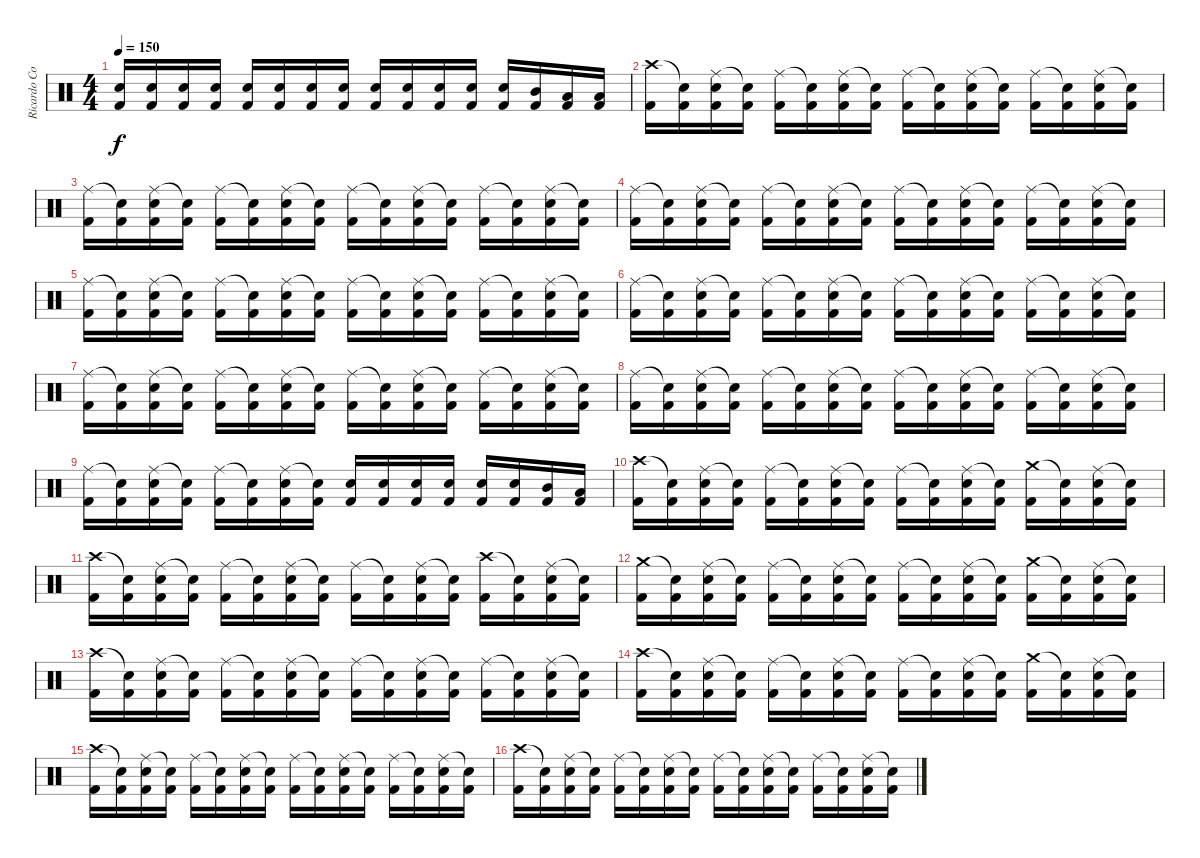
\track ("Ricardo Confessori" "Ricardo Co") {instrument percussion}
\staff {score}
\articulation defaults
\ts (4 4)
\tempo 150
\clef neutral
\ks c
("Electric Snare (hit)" "Kick (hit) 2").16{dy f} ("Electric Snare (hit)" "Kick (hit) 2").16 ("Electric Snare (hit)" "Kick (hit) 2").16 ("Electric Snare (hit)" "Kick (hit) 2").16 ("Electric Snare (hit)" "Kick (hit) 2").16 ("Electric Snare (hit)" "Kick (hit) 2").16 ("Electric Snare (hit)" "Kick (hit) 2").16 ("Electric Snare (hit)" "Kick (hit) 2").16 ("Electric Snare (hit)" "Kick (hit) 2").16 ("Electric Snare (hit)" "Kick (hit) 2").16 ("Electric Snare (hit)" "Kick (hit) 2").16 ("Electric Snare (hit)" "Kick (hit) 2").16 ("Electric Snare (hit)" "Kick (hit) 2").16 ("Mid Tom (hit)" "Kick (hit) 2").16 ("Low Tom (hit)" "Kick (hit) 2").16 ("Low Tom (hit)" "Kick (hit) 2").16 |
("Crash high (hit)" "Kick (hit) 2").16 ("Snare (hit)"{t} "Kick (hit) 2").16 ("Ride (middle)" "Electric Snare (hit)" "Kick (hit) 2").16 ("Snare (hit)"{t} "Kick (hit) 2").16 ("Ride (middle)" "Kick (hit) 2").16 ("Snare (hit)"{t} "Kick (hit) 2").16 ("Ride (middle)" "Electric Snare (hit)" "Kick (hit) 2").16 ("Snare (hit)"{t} "Kick (hit) 2").16 ("Ride (middle)" "Kick (hit) 2").16 ("Snare (hit)"{t} "Kick (hit) 2").16 ("Ride (middle)" "Electric Snare (hit)" "Kick (hit) 2").16 ("Snare (hit)"{t} "Kick (hit) 2").16 ("Ride (middle)" "Kick (hit) 2").16 ("Snare (hit)"{t} "Kick (hit) 2").16 ("Ride (middle)" "Electric Snare (hit)" "Kick (hit) 2").16 ("Snare (hit)"{t} "Kick (hit) 2").16 |
("Ride (middle)" "Kick (hit) 2").16 ("Snare (hit)"{t} "Kick (hit) 2").16 ("Ride (middle)" "Electric Snare (hit)" "Kick (hit) 2").16 ("Snare (hit)"{t} "Kick (hit) 2").16 ("Ride (middle)" "Kick (hit) 2").16 ("Snare (hit)"{t} "Kick (hit) 2").16 ("Ride (middle)" "Electric Snare (hit)" "Kick (hit) 2").16 ("Snare (hit)"{t} "Kick (hit) 2").16 ("Ride (middle)" "Kick (hit) 2").16 ("Snare (hit)"{t} "Kick (hit) 2").16 ("Ride (middle)" "Electric Snare (hit)" "Kick (hit) 2").16 ("Snare (hit)"{t} "Kick (hit) 2").16 ("Ride (middle)" "Kick (hit) 2").16 ("Snare (hit)"{t} "Kick (hit) 2").16 ("Ride (middle)" "Electric Snare (hit)" "Kick (hit) 2").16 ("Snare (hit)"{t} "Kick (hit) 2").16 |
("Ride (middle)" "Kick (hit) 2").16 ("Snare (hit)"{t} "Kick (hit) 2").16 ("Ride (middle)" "Electric Snare (hit)" "Kick (hit) 2").16 ("Snare (hit)"{t} "Kick (hit) 2").16 ("Ride (middle)" "Kick (hit) 2").16 ("Snare (hit)"{t} "Kick (hit) 2").16 ("Ride (middle)" "Electric Snare (hit)" "Kick (hit) 2").16 ("Snare (hit)"{t} "Kick (hit) 2").16 ("Ride (middle)" "Kick (hit) 2").16 ("Snare (hit)"{t} "Kick (hit) 2").16 ("Ride (middle)" "Electric Snare (hit)" "Kick (hit) 2").16 ("Snare (hit)"{t} "Kick (hit) 2").16 ("Ride (middle)" "Kick (hit) 2").16 ("Snare (hit)"{t} "Kick (hit) 2").16 ("Ride (middle)" "Electric Snare (hit)" "Kick (hit) 2").16 ("Snare (hit)"{t} "Kick (hit) 2").16 |
("Ride (middle)" "Kick (hit) 2").16 ("Snare (hit)"{t} "Kick (hit) 2").16 ("Ride (middle)" "Electric Snare (hit)" "Kick (hit) 2").16 ("Snare (hit)"{t} "Kick (hit) 2").16 ("Ride (middle)" "Kick (hit) 2").16 ("Snare (hit)"{t} "Kick (hit) 2").16 ("Ride (middle)" "Electric Snare (hit)" "Kick (hit) 2").16 ("Snare (hit)"{t} "Kick (hit) 2").16 ("Ride (middle)" "Kick (hit) 2").16 ("Snare (hit)"{t} "Kick (hit) 2").16 ("Ride (middle)" "Electric Snare (hit)" "Kick (hit) 2").16 ("Snare (hit)"{t} "Kick (hit) 2").16 ("Ride (middle)" "Kick (hit) 2").16 ("Snare (hit)"{t} "Kick (hit) 2").16 ("Ride (middle)" "Electric Snare (hit)" "Kick (hit) 2").16 ("Snare (hit)"{t} "Kick (hit) 2").16 |
("Ride (middle)" "Kick (hit) 2").16 ("Snare (hit)"{t} "Kick (hit) 2").16 ("Ride (middle)" "Electric Snare (hit)" "Kick (hit) 2").16 ("Snare (hit)"{t} "Kick (hit) 2").16 ("Ride (middle)" "Kick (hit) 2").16 ("Snare (hit)"{t} "Kick (hit) 2").16 ("Ride (middle)" "Electric Snare (hit)" "Kick (hit) 2").16 ("Snare (hit)"{t} "Kick (hit) 2").16 ("Ride (middle)" "Kick (hit) 2").16 ("Snare (hit)"{t} "Kick (hit) 2").16 ("Ride (middle)" "Electric Snare (hit)" "Kick (hit) 2").16 ("Snare (hit)"{t} "Kick (hit) 2").16 ("Ride (middle)" "Kick (hit) 2").16 ("Snare (hit)"{t} "Kick (hit) 2").16 ("Ride (middle)" "Electric Snare (hit)" "Kick (hit) 2").16 ("Snare (hit)"{t} "Kick (hit) 2").16 |
("Ride (middle)" "Kick (hit) 2").16 ("Snare (hit)"{t} "Kick (hit) 2").16 ("Ride (middle)" "Electric Snare (hit)" "Kick (hit) 2").16 ("Snare (hit)"{t} "Kick (hit) 2").16 ("Ride (middle)" "Kick (hit) 2").16 ("Snare (hit)"{t} "Kick (hit) 2").16 ("Ride (middle)" "Electric Snare (hit)" "Kick (hit) 2").16 ("Snare (hit)"{t} "Kick (hit) 2").16 ("Ride (middle)" "Kick (hit) 2").16 ("Snare (hit)"{t} "Kick (hit) 2").16 ("Ride (middle)" "Electric Snare (hit)" "Kick (hit) 2").16 ("Snare (hit)"{t} "Kick (hit) 2").16 ("Ride (middle)" "Kick (hit) 2").16 ("Snare (hit)"{t} "Kick (hit) 2").16 ("Ride (middle)" "Electric Snare (hit)" "Kick (hit) 2").16 ("Snare (hit)"{t} "Kick (hit) 2").16 |
("Ride (middle)" "Kick (hit) 2").16 ("Snare (hit)"{t} "Kick (hit) 2").16 ("Ride (middle)" "Electric Snare (hit)" "Kick (hit) 2").16 ("Snare (hit)"{t} "Kick (hit) 2").16 ("Ride (middle)" "Kick (hit) 2").16 ("Snare (hit)"{t} "Kick (hit) 2").16 ("Ride (middle)" "Electric Snare (hit)" "Kick (hit) 2").16 ("Snare (hit)"{t} "Kick (hit) 2").16 ("Ride (middle)" "Kick (hit) 2").16 ("Snare (hit)"{t} "Kick (hit) 2").16 ("Ride (middle)" "Electric Snare (hit)" "Kick (hit) 2").16 ("Snare (hit)"{t} "Kick (hit) 2").16 ("Ride (middle)" "Kick (hit) 2").16 ("Snare (hit)"{t} "Kick (hit) 2").16 ("Ride (middle)" "Electric Snare (hit)" "Kick (hit) 2").16 ("Snare (hit)"{t} "Kick (hit) 2").16 |
("Ride (middle)" "Kick (hit) 2").16 ("Snare (hit)"{t} "Kick (hit) 2").16 ("Ride (middle)" "Electric Snare (hit)" "Kick (hit) 2").16 ("Snare (hit)"{t} "Kick (hit) 2").16 ("Ride (middle)" "Kick (hit) 2").16 ("Snare (hit)"{t} "Kick (hit) 2").16 ("Ride (middle)" "Electric Snare (hit)" "Kick (hit) 2").16 ("Snare (hit)"{t} "Kick (hit) 2").16 ("Electric Snare (hit)" "Kick (hit) 2").16 ("Electric Snare (hit)" "Kick (hit) 2").16 ("Electric Snare (hit)" "Kick (hit) 2").16 ("Electric Snare (hit)" "Kick (hit) 2").16 ("Electric Snare (hit)" "Kick (hit) 2").16 ("Electric Snare (hit)" "Kick (hit) 2").16 ("Mid Tom (hit)" "Kick (hit) 2").16 ("Low Tom (hit)" "Kick (hit) 2").16 |
("Crash high (hit)" "Kick (hit) 2").16 ("Snare (hit)"{t} "Kick (hit) 2").16 ("Ride (middle)" "Electric Snare (hit)" "Kick (hit) 2").16 ("Snare (hit)"{t} "Kick (hit) 2").16 ("Ride (middle)" "Kick (hit) 2").16 ("Snare (hit)"{t} "Kick (hit) 2").16 ("Ride (middle)" "Electric Snare (hit)" "Kick (hit) 2").16 ("Snare (hit)"{t} "Kick (hit) 2").16 ("Ride (middle)" "Kick (hit) 2").16 ("Snare (hit)"{t} "Kick (hit) 2").16 ("Ride (middle)" "Electric Snare (hit)" "Kick (hit) 2").16 ("Snare (hit)"{t} "Kick (hit) 2").16 ("Crash medium (hit)" "Kick (hit) 2").16 ("Snare (hit)"{t} "Kick (hit) 2").16 ("Ride (middle)" "Electric Snare (hit)" "Kick (hit) 2").16 ("Snare (hit)"{t} "Kick (hit) 2").16 |
("Crash high (hit)" "Kick (hit) 2").16 ("Snare (hit)"{t} "Kick (hit) 2").16 ("Ride (middle)" "Electric Snare (hit)" "Kick (hit) 2").16 ("Snare (hit)"{t} "Kick (hit) 2").16 ("Ride (middle)" "Kick (hit) 2").16 ("Snare (hit)"{t} "Kick (hit) 2").16 ("Ride (middle)" "Electric Snare (hit)" "Kick (hit) 2").16 ("Snare (hit)"{t} "Kick (hit) 2").16 ("Ride (middle)" "Kick (hit) 2").16 ("Snare (hit)"{t} "Kick (hit) 2").16 ("Ride (middle)" "Electric Snare (hit)" "Kick (hit) 2").16 ("Snare (hit)"{t} "Kick (hit) 2").16 ("Crash high (hit)" "Kick (hit) 2").16 ("Snare (hit)"{t} "Kick (hit) 2").16 ("Ride (middle)" "Electric Snare (hit)" "Kick (hit) 2").16 ("Snare (hit)"{t} "Kick (hit) 2").16 |
("Crash medium (hit)" "Kick (hit) 2").16 ("Snare (hit)"{t} "Kick (hit) 2").16 ("Ride (middle)" "Electric Snare (hit)" "Kick (hit) 2").16 ("Snare (hit)"{t} "Kick (hit) 2").16 ("Ride (middle)" "Kick (hit) 2").16 ("Snare (hit)"{t} "Kick (hit) 2").16 ("Ride (middle)" "Electric Snare (hit)" "Kick (hit) 2").16 ("Snare (hit)"{t} "Kick (hit) 2").16 ("Ride (middle)" "Kick (hit) 2").16 ("Snare (hit)"{t} "Kick (hit) 2").16 ("Ride (middle)" "Electric Snare (hit)" "Kick (hit) 2").16 ("Snare (hit)"{t} "Kick (hit) 2").16 ("Crash medium (hit)" "Kick (hit) 2").16 ("Snare (hit)"{t} "Kick (hit) 2").16 ("Ride (middle)" "Electric Snare (hit)" "Kick (hit) 2").16 ("Snare (hit)"{t} "Kick (hit) 2").16 |
("Crash high (hit)" "Kick (hit) 2").16 ("Snare (hit)"{t} "Kick (hit) 2").16 ("Ride (middle)" "Electric Snare (hit)" "Kick (hit) 2").16 ("Snare (hit)"{t} "Kick (hit) 2").16 ("Ride (middle)" "Kick (hit) 2").16 ("Snare (hit)"{t} "Kick (hit) 2").16 ("Ride (middle)" "Electric Snare (hit)" "Kick (hit) 2").16 ("Snare (hit)"{t} "Kick (hit) 2").16 ("Ride (middle)" "Kick (hit) 2").16 ("Snare (hit)"{t} "Kick (hit) 2").16 ("Ride (middle)" "Electric Snare (hit)" "Kick (hit) 2").16 ("Snare (hit)"{t} "Kick (hit) 2").16 ("Ride (middle)" "Kick (hit) 2").16 ("Snare (hit)"{t} "Kick (hit) 2").16 ("Ride (middle)" "Electric Snare (hit)" "Kick (hit) 2").16 ("Snare (hit)"{t} "Kick (hit) 2").16 |
("Crash high (hit)" "Kick (hit) 2").16 ("Snare (hit)"{t} "Kick (hit) 2").16 ("Ride (middle)" "Electric Snare (hit)" "Kick (hit) 2").16 ("Snare (hit)"{t} "Kick (hit) 2").16 ("Ride (middle)" "Kick (hit) 2").16 ("Snare (hit)"{t} "Kick (hit) 2").16 ("Ride (middle)" "Electric Snare (hit)" "Kick (hit) 2").16 ("Snare (hit)"{t} "Kick (hit) 2").16 ("Ride (middle)" "Kick (hit) 2").16 ("Snare (hit)"{t} "Kick (hit) 2").16 ("Ride (middle)" "Electric Snare (hit)" "Kick (hit) 2").16 ("Snare (hit)"{t} "Kick (hit) 2").16 ("Crash medium (hit)" "Kick (hit) 2").16 ("Snare (hit)"{t} "Kick (hit) 2").16 ("Ride (middle)" "Electric Snare (hit)" "Kick (hit) 2").16 ("Snare (hit)"{t} "Kick (hit) 2").16 |
("Crash high (hit)" "Kick (hit) 2").16 ("Snare (hit)"{t} "Kick (hit) 2").16 ("Ride (middle)" "Electric Snare (hit)" "Kick (hit) 2").16 ("Snare (hit)"{t} "Kick (hit) 2").16 ("Ride (middle)" "Kick (hit) 2").16 ("Snare (hit)"{t} "Kick (hit) 2").16 ("Ride (middle)" "Electric Snare (hit)" "Kick (hit) 2").16 ("Snare (hit)"{t} "Kick (hit) 2").16 ("Ride (middle)" "Kick (hit) 2").16 ("Snare (hit)"{t} "Kick (hit) 2").16 ("Ride (middle)" "Electric Snare (hit)" "Kick (hit) 2").16 ("Snare (hit)"{t} "Kick (hit) 2").16 ("Ride (middle)" "Kick (hit) 2").16 ("Snare (hit)"{t} "Kick (hit) 2").16 ("Ride (middle)" "Electric Snare (hit)" "Kick (hit) 2").16 ("Snare (hit)"{t} "Kick (hit) 2").16 |
("Crash high (hit)" "Kick (hit) 2").16 ("Snare (hit)"{t} "Kick (hit) 2").16 ("Ride (middle)" "Electric Snare (hit)" "Kick (hit) 2").16 ("Snare (hit)"{t} "Kick (hit) 2").16 ("Ride (middle)" "Kick (hit) 2").16 ("Snare (hit)"{t} "Kick (hit) 2").16 ("Ride (middle)" "Electric Snare (hit)" "Kick (hit) 2").16 ("Snare (hit)"{t} "Kick (hit) 2").16 ("Ride (middle)" "Kick (hit) 2").16 ("Snare (hit)"{t} "Kick (hit) 2").16 ("Ride (middle)" "Electric Snare (hit)" "Kick (hit) 2").16 ("Snare (hit)"{t} "Kick (hit) 2").16 ("Ride (middle)" "Kick (hit) 2").16 ("Snare (hit)"{t} "Kick (hit) 2").16 ("Ride (middle)" "Electric Snare (hit)" "Kick (hit) 2").16 ("Snare (hit)"{t} "Kick (hit) 2").16
